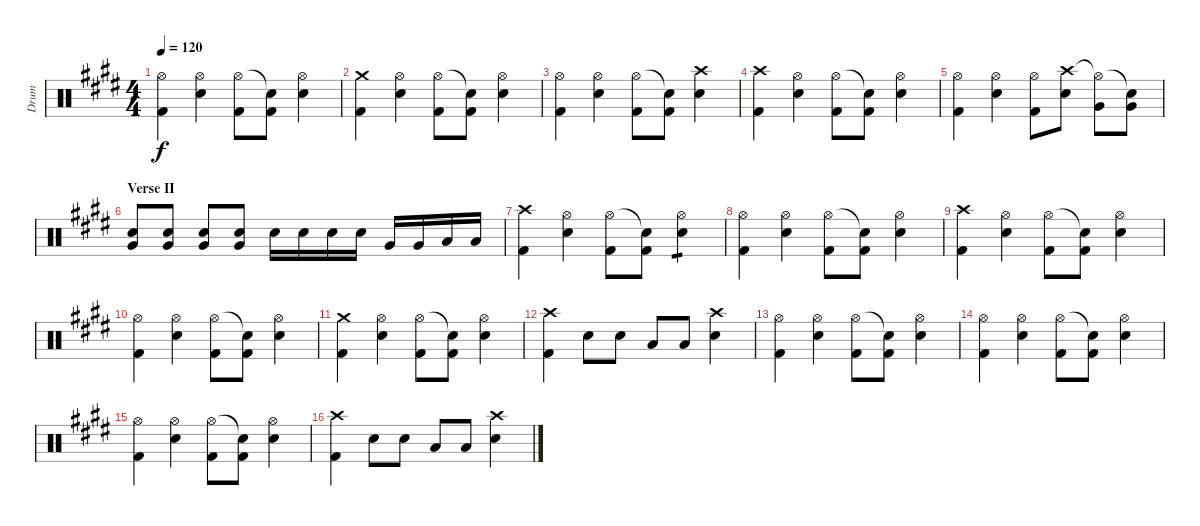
\track ("Drum" "Drum") {instrument percussion}
\staff {score}
\articulation defaults
\ts (4 4)
\tempo 120
\clef neutral
\ks e
("Hi-Hat (open)" "Kick (hit) 2").4{dy f} ("Hi-Hat (open)" "Electric Snare (hit)").4 ("Hi-Hat (open)" "Kick (hit) 2").8 ("Snare (hit)"{t} "Kick (hit) 2").8 ("Hi-Hat (open)" "Electric Snare (hit)").4 |
("Crash medium (hit)" "Kick (hit) 2").4 ("Hi-Hat (open)" "Electric Snare (hit)").4 ("Hi-Hat (open)" "Kick (hit) 2").8 ("Snare (hit)"{t} "Kick (hit) 2").8 ("Hi-Hat (open)" "Electric Snare (hit)").4 |
("Hi-Hat (open)" "Kick (hit) 2").4 ("Hi-Hat (open)" "Electric Snare (hit)").4 ("Hi-Hat (open)" "Kick (hit) 2").8 ("Snare (hit)"{t} "Kick (hit) 2").8 ("Crash high (hit)" "Electric Snare (hit)").4 |
("Crash high (hit)" "Kick (hit) 2").4 ("Hi-Hat (open)" "Electric Snare (hit)").4 ("Hi-Hat (open)" "Kick (hit) 2").8 ("Snare (hit)"{t} "Kick (hit) 2").8 ("Hi-Hat (open)" "Electric Snare (hit)").4 |
("Hi-Hat (open)" "Kick (hit) 2").4 ("Hi-Hat (open)" "Electric Snare (hit)").4 ("Hi-Hat (open)" "Kick (hit) 2").8 ("Crash high (hit)" "Electric Snare (hit)").8 ("Hi-Hat (open)"{t} "Very Low Tom (hit)").8 ("Snare (hit)"{t} "Very Low Tom (hit)").8 |
\section ("" "Verse II")
("Electric Snare (hit)" "Very Low Tom (hit)").8{volume 10} ("Electric Snare (hit)" "Very Low Tom (hit)").8{volume 13} ("Electric Snare (hit)" "Very Low Tom (hit)").8 ("Electric Snare (hit)" "Very Low Tom (hit)").8 "Electric Snare (hit)".16 "Electric Snare (hit)".16 "Electric Snare (hit)".16 "Electric Snare (hit)".16 "Very Low Tom (hit)".16 "Very Low Tom (hit)".16 "Low Tom (hit)".16 "Low Tom (hit)".16 |
("Crash high (hit)" "Kick (hit) 2").4 ("Hi-Hat (open)" "Electric Snare (hit)").4 ("Hi-Hat (open)" "Kick (hit) 2").8 ("Snare (hit)"{t} "Kick (hit) 2").8 ("Hi-Hat (open)" "Electric Snare (hit)").4{tp 1} |
("Hi-Hat (open)" "Kick (hit) 2").4 ("Hi-Hat (open)" "Electric Snare (hit)").4 ("Hi-Hat (open)" "Kick (hit) 2").8 ("Snare (hit)"{t} "Kick (hit) 2").8 ("Hi-Hat (open)" "Electric Snare (hit)").4 |
("Crash high (hit)" "Kick (hit) 2").4 ("Hi-Hat (open)" "Electric Snare (hit)").4 ("Hi-Hat (open)" "Kick (hit) 2").8 ("Snare (hit)"{t} "Kick (hit) 2").8 ("Hi-Hat (open)" "Electric Snare (hit)").4 |
("Hi-Hat (open)" "Kick (hit) 2").4 ("Hi-Hat (open)" "Electric Snare (hit)").4 ("Hi-Hat (open)" "Kick (hit) 2").8 ("Snare (hit)"{t} "Kick (hit) 2").8 ("Hi-Hat (open)" "Electric Snare (hit)").4 |
("Crash medium (hit)" "Kick (hit) 2").4 ("Hi-Hat (open)" "Electric Snare (hit)").4 ("Hi-Hat (open)" "Kick (hit) 2").8 ("Snare (hit)"{t} "Kick (hit) 2").8 ("Hi-Hat (open)" "Electric Snare (hit)").4 |
("Crash high (hit)" "Kick (hit) 2").4 "Electric Snare (hit)".8 "Electric Snare (hit)".8 "Low Tom (hit)".8 "Low Tom (hit)".8 ("Crash high (hit)" "Electric Snare (hit)").4 |
("Hi-Hat (open)" "Kick (hit) 2").4 ("Hi-Hat (open)" "Electric Snare (hit)").4 ("Hi-Hat (open)" "Kick (hit) 2").8 ("Snare (hit)"{t} "Kick (hit) 2").8 ("Hi-Hat (open)" "Electric Snare (hit)").4 |
("Hi-Hat (open)" "Kick (hit) 2").4 ("Hi-Hat (open)" "Electric Snare (hit)").4 ("Hi-Hat (open)" "Kick (hit) 2").8 ("Snare (hit)"{t} "Kick (hit) 2").8 ("Hi-Hat (open)" "Electric Snare (hit)").4 |
("Hi-Hat (open)" "Kick (hit) 2").4 ("Hi-Hat (open)" "Electric Snare (hit)").4 ("Hi-Hat (open)" "Kick (hit) 2").8 ("Snare (hit)"{t} "Kick (hit) 2").8 ("Hi-Hat (open)" "Electric Snare (hit)").4 |
("Crash high (hit)" "Kick (hit) 2").4 "Electric Snare (hit)".8 "Electric Snare (hit)".8 "Low Tom (hit)".8 "Low Tom (hit)".8 ("Crash high (hit)" "Electric Snare (hit)").4
